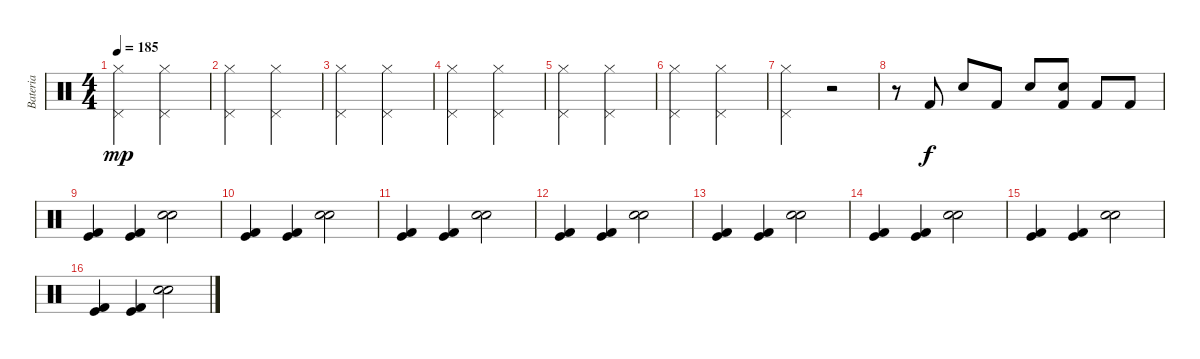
\track ("Bateria" "Bateria") {instrument percussion}
\staff {score}
\articulation defaults
\ts (4 4)
\tempo 185
\clef neutral
\ks c
("Pedal Hi-Hat (hit)" "Hi-Hat (closed)").2{dy mp} ("Pedal Hi-Hat (hit)" "Hi-Hat (closed)").2 |
("Pedal Hi-Hat (hit)" "Hi-Hat (closed)").2 ("Pedal Hi-Hat (hit)" "Hi-Hat (closed)").2 |
("Pedal Hi-Hat (hit)" "Hi-Hat (closed)").2 ("Pedal Hi-Hat (hit)" "Hi-Hat (closed)").2 |
("Pedal Hi-Hat (hit)" "Hi-Hat (closed)").2 ("Pedal Hi-Hat (hit)" "Hi-Hat (closed)").2 |
("Pedal Hi-Hat (hit)" "Hi-Hat (closed)").2 ("Pedal Hi-Hat (hit)" "Hi-Hat (closed)").2 |
("Pedal Hi-Hat (hit)" "Hi-Hat (closed)").2 ("Pedal Hi-Hat (hit)" "Hi-Hat (closed)").2 |
("Pedal Hi-Hat (hit)" "Hi-Hat (closed)").2 r.2 |
r.8 "Kick (hit) 2".8{dy f} "Electric Snare (hit)".8 "Kick (hit) 2".8 "Electric Snare (hit)".8 ("Electric Snare (hit)" "Kick (hit) 2").8 "Kick (hit) 2".8 "Kick (hit) 2".8 |
("Kick (hit) 2" "Kick (hit)").4 ("Kick (hit) 2" "Kick (hit)").4 ("Electric Snare (hit)" "Snare (hit) 2").2 |
("Kick (hit) 2" "Kick (hit)").4 ("Kick (hit) 2" "Kick (hit)").4 ("Electric Snare (hit)" "Snare (hit) 2").2 |
("Kick (hit) 2" "Kick (hit)").4 ("Kick (hit) 2" "Kick (hit)").4 ("Electric Snare (hit)" "Snare (hit) 2").2 |
("Kick (hit) 2" "Kick (hit)").4 ("Kick (hit) 2" "Kick (hit)").4 ("Electric Snare (hit)" "Snare (hit) 2").2 |
("Kick (hit) 2" "Kick (hit)").4 ("Kick (hit) 2" "Kick (hit)").4 ("Electric Snare (hit)" "Snare (hit) 2").2 |
("Kick (hit) 2" "Kick (hit)").4 ("Kick (hit) 2" "Kick (hit)").4 ("Electric Snare (hit)" "Snare (hit) 2").2 |
("Kick (hit) 2" "Kick (hit)").4 ("Kick (hit) 2" "Kick (hit)").4 ("Electric Snare (hit)" "Snare (hit) 2").2 |
("Kick (hit) 2" "Kick (hit)").4 ("Kick (hit) 2" "Kick (hit)").4 ("Electric Snare (hit)" "Snare (hit) 2").2
